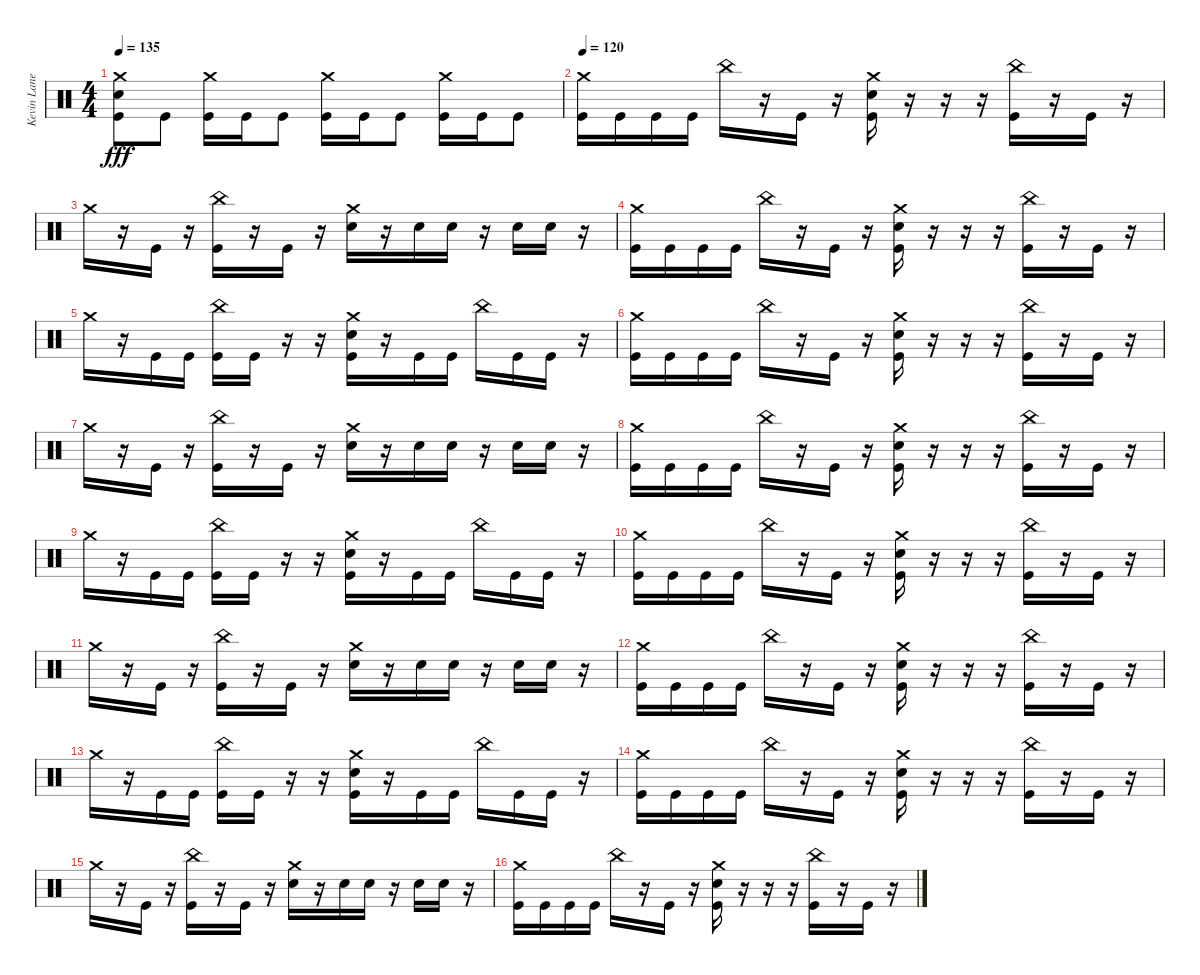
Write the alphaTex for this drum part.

\track ("Kevin Lane" "Kevin Lane") {instrument percussion}
\staff {score}
\articulation defaults
\ts (4 4)
\tempo 135
\clef neutral
\ks c
("Crash medium (hit)" "Snare (hit) 2" "Kick (hit)").8{dy fff} "Kick (hit)".8 ("Crash medium (hit)" "Kick (hit)").16 "Kick (hit)".16 "Kick (hit)".8 ("Crash medium (hit)" "Kick (hit)").16 "Kick (hit)".16 "Kick (hit)".8 ("Crash medium (hit)" "Kick (hit)").16 "Kick (hit)".16 "Kick (hit)".8 |
\tempo 120
("Crash medium (hit)" "Kick (hit)").16 "Kick (hit)".16 "Kick (hit)".16 "Kick (hit)".16 "China (hit)".16 r.16 "Kick (hit)".16 r.16 ("Crash medium (hit)" "Snare (hit) 2" "Kick (hit)").16 r.16 r.16 r.16 ("China (hit)" "Kick (hit)").16 r.16 "Kick (hit)".16 r.16 |
"Crash medium (hit)".16 r.16 "Kick (hit)".16 r.16 ("China (hit)" "Kick (hit)").16 r.16 "Kick (hit)".16 r.16 ("Crash medium (hit)" "Snare (hit) 2").16 r.16 "Snare (hit) 2".16 "Snare (hit) 2".16 r.16 "Snare (hit) 2".16 "Snare (hit) 2".16 r.16 |
("Crash medium (hit)" "Kick (hit)").16 "Kick (hit)".16 "Kick (hit)".16 "Kick (hit)".16 "China (hit)".16 r.16 "Kick (hit)".16 r.16 ("Crash medium (hit)" "Snare (hit) 2" "Kick (hit)").16 r.16 r.16 r.16 ("China (hit)" "Kick (hit)").16 r.16 "Kick (hit)".16 r.16 |
"Crash medium (hit)".16 r.16 "Kick (hit)".16 "Kick (hit)".16 ("China (hit)" "Kick (hit)").16 "Kick (hit)".16 r.16 r.16 ("Crash medium (hit)" "Snare (hit) 2" "Kick (hit)").16 r.16 "Kick (hit)".16 "Kick (hit)".16 "China (hit)".16 "Kick (hit)".16 "Kick (hit)".16 r.16 |
("Crash medium (hit)" "Kick (hit)").16 "Kick (hit)".16 "Kick (hit)".16 "Kick (hit)".16 "China (hit)".16 r.16 "Kick (hit)".16 r.16 ("Crash medium (hit)" "Snare (hit) 2" "Kick (hit)").16 r.16 r.16 r.16 ("China (hit)" "Kick (hit)").16 r.16 "Kick (hit)".16 r.16 |
"Crash medium (hit)".16 r.16 "Kick (hit)".16 r.16 ("China (hit)" "Kick (hit)").16 r.16 "Kick (hit)".16 r.16 ("Crash medium (hit)" "Snare (hit) 2").16 r.16 "Snare (hit) 2".16 "Snare (hit) 2".16 r.16 "Snare (hit) 2".16 "Snare (hit) 2".16 r.16 |
("Crash medium (hit)" "Kick (hit)").16 "Kick (hit)".16 "Kick (hit)".16 "Kick (hit)".16 "China (hit)".16 r.16 "Kick (hit)".16 r.16 ("Crash medium (hit)" "Snare (hit) 2" "Kick (hit)").16 r.16 r.16 r.16 ("China (hit)" "Kick (hit)").16 r.16 "Kick (hit)".16 r.16 |
"Crash medium (hit)".16 r.16 "Kick (hit)".16 "Kick (hit)".16 ("China (hit)" "Kick (hit)").16 "Kick (hit)".16 r.16 r.16 ("Crash medium (hit)" "Snare (hit) 2" "Kick (hit)").16 r.16 "Kick (hit)".16 "Kick (hit)".16 "China (hit)".16 "Kick (hit)".16 "Kick (hit)".16 r.16 |
("Crash medium (hit)" "Kick (hit)").16{volume 8} "Kick (hit)".16 "Kick (hit)".16 "Kick (hit)".16 "China (hit)".16 r.16 "Kick (hit)".16 r.16 ("Crash medium (hit)" "Snare (hit) 2" "Kick (hit)").16 r.16 r.16 r.16 ("China (hit)" "Kick (hit)").16 r.16 "Kick (hit)".16 r.16 |
"Crash medium (hit)".16 r.16 "Kick (hit)".16 r.16 ("China (hit)" "Kick (hit)").16 r.16 "Kick (hit)".16 r.16 ("Crash medium (hit)" "Snare (hit) 2").16 r.16 "Snare (hit) 2".16 "Snare (hit) 2".16 r.16 "Snare (hit) 2".16 "Snare (hit) 2".16 r.16 |
("Crash medium (hit)" "Kick (hit)").16 "Kick (hit)".16 "Kick (hit)".16 "Kick (hit)".16 "China (hit)".16 r.16 "Kick (hit)".16 r.16 ("Crash medium (hit)" "Snare (hit) 2" "Kick (hit)").16 r.16 r.16 r.16 ("China (hit)" "Kick (hit)").16 r.16 "Kick (hit)".16 r.16 |
"Crash medium (hit)".16 r.16 "Kick (hit)".16 "Kick (hit)".16 ("China (hit)" "Kick (hit)").16 "Kick (hit)".16 r.16 r.16 ("Crash medium (hit)" "Snare (hit) 2" "Kick (hit)").16 r.16 "Kick (hit)".16 "Kick (hit)".16 "China (hit)".16 "Kick (hit)".16 "Kick (hit)".16 r.16 |
("Crash medium (hit)" "Kick (hit)").16{volume 0} "Kick (hit)".16 "Kick (hit)".16 "Kick (hit)".16 "China (hit)".16 r.16 "Kick (hit)".16 r.16 ("Crash medium (hit)" "Snare (hit) 2" "Kick (hit)").16 r.16 r.16 r.16 ("China (hit)" "Kick (hit)").16 r.16 "Kick (hit)".16 r.16 |
"Crash medium (hit)".16 r.16 "Kick (hit)".16 r.16 ("China (hit)" "Kick (hit)").16 r.16 "Kick (hit)".16 r.16 ("Crash medium (hit)" "Snare (hit) 2").16 r.16 "Snare (hit) 2".16 "Snare (hit) 2".16 r.16 "Snare (hit) 2".16 "Snare (hit) 2".16 r.16 |
("Crash medium (hit)" "Kick (hit)").16 "Kick (hit)".16 "Kick (hit)".16 "Kick (hit)".16 "China (hit)".16 r.16 "Kick (hit)".16 r.16 ("Crash medium (hit)" "Snare (hit) 2" "Kick (hit)").16 r.16 r.16 r.16 ("China (hit)" "Kick (hit)").16 r.16 "Kick (hit)".16 r.16
